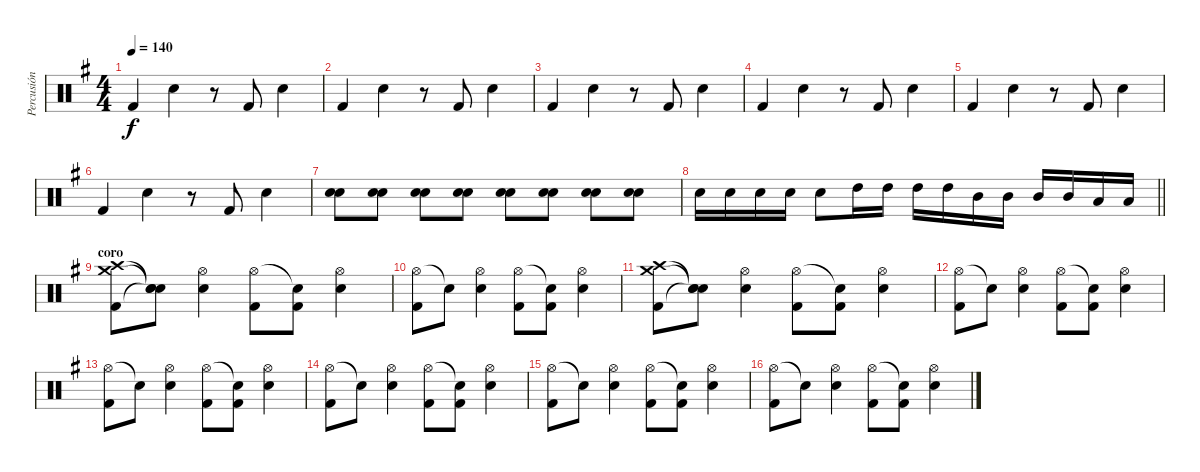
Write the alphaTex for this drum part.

\track ("Percusión" "Percusión") {instrument percussion}
\staff {score}
\articulation defaults
\ts (4 4)
\tempo 140
\clef neutral
\ks g "Kick (hit) 2".4{dy f} "Snare (hit) 2".4
r.8 "Kick (hit) 2".8 "Snare (hit) 2".4 |
"Kick (hit) 2".4 "Snare (hit) 2".4 r.8 "Kick (hit) 2".8 "Snare (hit) 2".4 |
"Kick (hit) 2".4 "Snare (hit) 2".4 r.8 "Kick (hit) 2".8 "Snare (hit) 2".4 |
"Kick (hit) 2".4 "Snare (hit) 2".4 r.8 "Kick (hit) 2".8 "Snare (hit) 2".4 |
"Kick (hit) 2".4 "Snare (hit) 2".4 r.8 "Kick (hit) 2".8 "Snare (hit) 2".4 |
"Kick (hit) 2".4 "Snare (hit) 2".4 r.8 "Kick (hit) 2".8 "Snare (hit) 2".4 |
("Snare (hit) 2" "Snare (hit) 2").8{volume 3} ("Snare (hit) 2" "Snare (hit) 2").8{volume 13} ("Snare (hit) 2" "Snare (hit) 2").8 ("Snare (hit) 2" "Snare (hit) 2").8 ("Snare (hit) 2" "Snare (hit) 2").8 ("Snare (hit) 2" "Snare (hit) 2").8 ("Snare (hit) 2" "Snare (hit) 2").8 ("Snare (hit) 2" "Snare (hit) 2").8 |
\barLineRight lightlight "Snare (hit) 2".16 "Snare (hit) 2".16 "Snare (hit) 2".16 "Snare (hit) 2".16 "Snare (hit) 2".8 "High Tom (hit)".16 "High Tom (hit)".16 "High Tom (hit)".16 "High Tom (hit)".16 "Mid Tom (hit)".16 "Mid Tom (hit)".16 "Mid Tom (hit)".16 "Mid Tom (hit)".16 "Low Tom (hit)".16 "Low Tom (hit)".16
|
\section ("" "coro")
("Crash medium (hit)" "Crash high (hit)" "Kick (hit) 2").8 ("Snare (hit)"{t} "Snare (hit)"{t} "Snare (hit)"{t}).8 ("Hi-Hat (open)" "Electric Snare (hit)").4 ("Hi-Hat (open)" "Kick (hit) 2").8 ("Snare (hit)"{t} "Kick (hit) 2").8 ("Hi-Hat (open)" "Electric Snare (hit)").4 |
("Hi-Hat (open)" "Kick (hit) 2").8 "Snare (hit)"{t}.8 ("Hi-Hat (open)" "Electric Snare (hit)").4 ("Hi-Hat (open)" "Kick (hit) 2").8 ("Snare (hit)"{t} "Kick (hit) 2").8 ("Hi-Hat (open)" "Electric Snare (hit)").4 |
("Crash medium (hit)" "Crash high (hit)" "Kick (hit) 2").8 ("Snare (hit)"{t} "Snare (hit)"{t} "Snare (hit)"{t}).8 ("Hi-Hat (open)" "Electric Snare (hit)").4 ("Hi-Hat (open)" "Kick (hit) 2").8 ("Snare (hit)"{t} "Kick (hit) 2").8 ("Hi-Hat (open)" "Electric Snare (hit)").4 |
("Hi-Hat (open)" "Kick (hit) 2").8 "Snare (hit)"{t}.8 ("Hi-Hat (open)" "Electric Snare (hit)").4 ("Hi-Hat (open)" "Kick (hit) 2").8 ("Snare (hit)"{t} "Kick (hit) 2").8 ("Hi-Hat (open)" "Electric Snare (hit)").4 |
("Hi-Hat (open)" "Kick (hit) 2").8 "Snare (hit)"{t}.8 ("Hi-Hat (open)" "Electric Snare (hit)").4 ("Hi-Hat (open)" "Kick (hit) 2").8 ("Snare (hit)"{t} "Kick (hit) 2").8 ("Hi-Hat (open)" "Electric Snare (hit)").4 |
("Hi-Hat (open)" "Kick (hit) 2").8 "Snare (hit)"{t}.8 ("Hi-Hat (open)" "Electric Snare (hit)").4 ("Hi-Hat (open)" "Kick (hit) 2").8 ("Snare (hit)"{t} "Kick (hit) 2").8 ("Hi-Hat (open)" "Electric Snare (hit)").4 |
("Hi-Hat (open)" "Kick (hit) 2").8 "Snare (hit)"{t}.8 ("Hi-Hat (open)" "Electric Snare (hit)").4 ("Hi-Hat (open)" "Kick (hit) 2").8 ("Snare (hit)"{t} "Kick (hit) 2").8 ("Hi-Hat (open)" "Electric Snare (hit)").4 |
("Hi-Hat (open)" "Kick (hit) 2").8 "Snare (hit)"{t}.8 ("Hi-Hat (open)" "Electric Snare (hit)").4 ("Hi-Hat (open)" "Kick (hit) 2").8 ("Snare (hit)"{t} "Kick (hit) 2").8 ("Hi-Hat (open)" "Electric Snare (hit)").4
